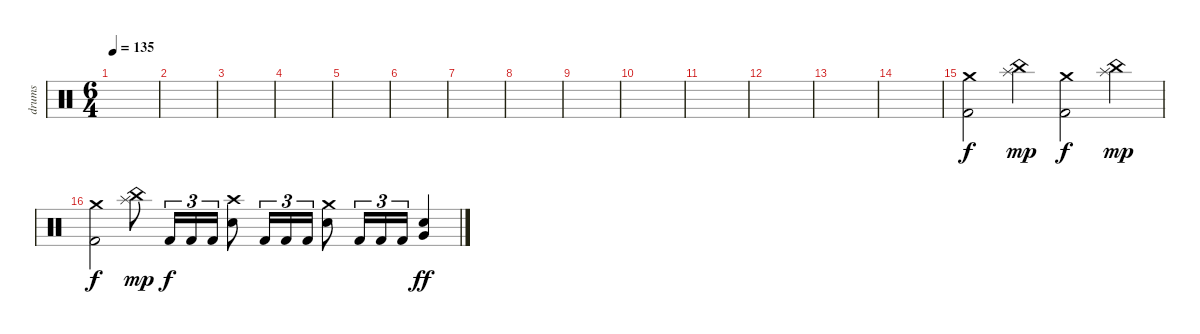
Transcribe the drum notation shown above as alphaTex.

\track ("drums" "drums") {instrument percussion}
\staff {score}
\articulation defaults
\ts (6 4)
\tempo 135
\clef neutral
\ks c
|
|
|
|
|
|
|
|
|
|
|
|
|
|
("Crash medium (hit)" "Kick (hit) 2").2 ("Splash (hit)" "China (hit)").4{dy mp} ("Crash medium (hit)" "Kick (hit) 2").2{dy f} ("Splash (hit)" "China (hit)").4{dy mp} |
("Crash medium (hit)" "Kick (hit) 2").2{dy f} ("Splash (hit)" "China (hit)").8{dy mp} "Kick (hit) 2".16{tu (3 2) dy f} "Kick (hit) 2".16{tu (3 2)} "Kick (hit) 2".16{tu (3 2)} ("Crash high (hit)" "Electric Snare (hit)").8 "Kick (hit) 2".16{tu (3 2)} "Kick (hit) 2".16{tu (3 2)} "Kick (hit) 2".16{tu (3 2)} ("Crash medium (hit)" "Electric Snare (hit)").8 "Kick (hit) 2".16{tu (3 2)} "Kick (hit) 2".16{tu (3 2)} "Kick (hit) 2".16{tu (3 2)} ("Very Low Tom (hit)" "Electric Snare (hit)").4{dy ff}
